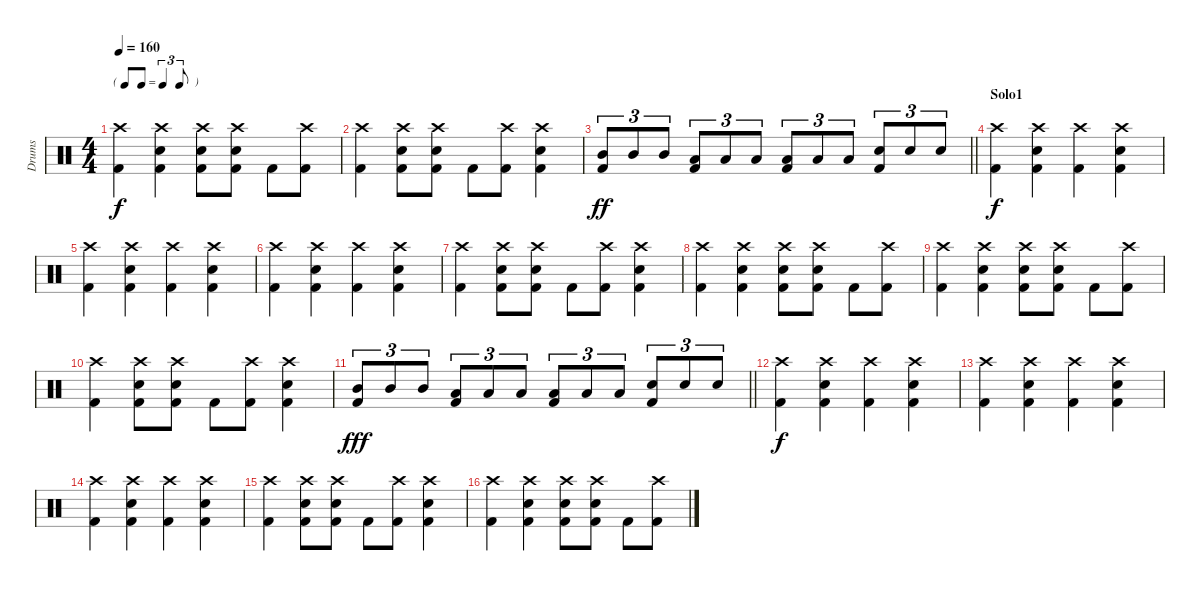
\track ("Drums" "Drums") {instrument percussion}
\staff {score}
\articulation defaults
\ts (4 4)
\tf triplet8th
\tempo 160
\clef neutral
\ks c
("Crash high (hit)" "Kick (hit) 2").4{dy f} ("Crash high (hit)" "Snare (hit) 2" "Kick (hit) 2").4 ("Crash high (hit)" "Snare (hit) 2" "Kick (hit) 2").8 ("Crash high (hit)" "Snare (hit) 2" "Kick (hit) 2").8 "Kick (hit) 2".8 ("Crash high (hit)" "Kick (hit) 2").8 |
("Crash high (hit)" "Kick (hit) 2").4 ("Crash high (hit)" "Snare (hit) 2" "Kick (hit) 2").8 ("Crash high (hit)" "Snare (hit) 2" "Kick (hit) 2").8 "Kick (hit) 2".8 ("Crash high (hit)" "Kick (hit) 2").8 ("Crash high (hit)" "Snare (hit) 2" "Kick (hit) 2").4 |
\barLineRight lightlight
("Mid Tom (hit)" "Kick (hit) 2").8{tu (3 2) dy ff} "Mid Tom (hit)".8{tu (3 2)} "Mid Tom (hit)".8{tu (3 2)} ("Low Tom (hit)" "Kick (hit) 2").8{tu (3 2)} "Low Tom (hit)".8{tu (3 2)} "Low Tom (hit)".8{tu (3 2)} ("Low Floor Tom (hit)" "Kick (hit) 2").8{tu (3 2)} "Low Floor Tom (hit)".8{tu (3 2)} "Low Floor Tom (hit)".8{tu (3 2)} ("Snare (hit) 2" "Kick (hit) 2").8{tu (3 2)} "Snare (hit) 2".8{tu (3 2)} "Snare (hit) 2".8{tu (3 2)} |
\section ("" "Solo1")
("Crash high (hit)" "Kick (hit) 2").4{dy f} ("Crash high (hit)" "Snare (hit) 2" "Kick (hit) 2").4 ("Crash high (hit)" "Kick (hit) 2").4 ("Crash high (hit)" "Snare (hit) 2" "Kick (hit) 2").4 |
("Crash high (hit)" "Kick (hit) 2").4 ("Crash high (hit)" "Snare (hit) 2" "Kick (hit) 2").4 ("Crash high (hit)" "Kick (hit) 2").4 ("Crash high (hit)" "Snare (hit) 2" "Kick (hit) 2").4 |
("Crash high (hit)" "Kick (hit) 2").4 ("Crash high (hit)" "Snare (hit) 2" "Kick (hit) 2").4 ("Crash high (hit)" "Kick (hit) 2").4 ("Crash high (hit)" "Snare (hit) 2" "Kick (hit) 2").4 |
("Crash high (hit)" "Kick (hit) 2").4 ("Crash high (hit)" "Snare (hit) 2" "Kick (hit) 2").8 ("Crash high (hit)" "Snare (hit) 2" "Kick (hit) 2").8 "Kick (hit) 2".8 ("Crash high (hit)" "Kick (hit) 2").8 ("Crash high (hit)" "Snare (hit) 2" "Kick (hit) 2").4 |
("Crash high (hit)" "Kick (hit) 2").4 ("Crash high (hit)" "Snare (hit) 2" "Kick (hit) 2").4 ("Crash high (hit)" "Snare (hit) 2" "Kick (hit) 2").8 ("Crash high (hit)" "Snare (hit) 2" "Kick (hit) 2").8 "Kick (hit) 2".8 ("Crash high (hit)" "Kick (hit) 2").8 |
("Crash high (hit)" "Kick (hit) 2").4 ("Crash high (hit)" "Snare (hit) 2" "Kick (hit) 2").4 ("Crash high (hit)" "Snare (hit) 2" "Kick (hit) 2").8 ("Crash high (hit)" "Snare (hit) 2" "Kick (hit) 2").8 "Kick (hit) 2".8 ("Crash high (hit)" "Kick (hit) 2").8 |
("Crash high (hit)" "Kick (hit) 2").4 ("Crash high (hit)" "Snare (hit) 2" "Kick (hit) 2").8 ("Crash high (hit)" "Snare (hit) 2" "Kick (hit) 2").8 "Kick (hit) 2".8 ("Crash high (hit)" "Kick (hit) 2").8 ("Crash high (hit)" "Snare (hit) 2" "Kick (hit) 2").4 |
\barLineRight lightlight
("Mid Tom (hit)" "Kick (hit) 2").8{tu (3 2) dy fff} "Mid Tom (hit)".8{tu (3 2)} "Mid Tom (hit)".8{tu (3 2)} ("Low Tom (hit)" "Kick (hit) 2").8{tu (3 2)} "Low Tom (hit)".8{tu (3 2)} "Low Tom (hit)".8{tu (3 2)} ("Low Floor Tom (hit)" "Kick (hit) 2").8{tu (3 2)} "Low Floor Tom (hit)".8{tu (3 2)} "Low Floor Tom (hit)".8{tu (3 2)} ("Snare (hit) 2" "Kick (hit) 2").8{tu (3 2)} "Snare (hit) 2".8{tu (3 2)} "Snare (hit) 2".8{tu (3 2)} |
("Crash high (hit)" "Kick (hit) 2").4{dy f} ("Crash high (hit)" "Snare (hit) 2" "Kick (hit) 2").4 ("Crash high (hit)" "Kick (hit) 2").4 ("Crash high (hit)" "Snare (hit) 2" "Kick (hit) 2").4 |
("Crash high (hit)" "Kick (hit) 2").4 ("Crash high (hit)" "Snare (hit) 2" "Kick (hit) 2").4 ("Crash high (hit)" "Kick (hit) 2").4 ("Crash high (hit)" "Snare (hit) 2" "Kick (hit) 2").4 |
("Crash high (hit)" "Kick (hit) 2").4 ("Crash high (hit)" "Snare (hit) 2" "Kick (hit) 2").4 ("Crash high (hit)" "Kick (hit) 2").4 ("Crash high (hit)" "Snare (hit) 2" "Kick (hit) 2").4 |
("Crash high (hit)" "Kick (hit) 2").4 ("Crash high (hit)" "Snare (hit) 2" "Kick (hit) 2").8 ("Crash high (hit)" "Snare (hit) 2" "Kick (hit) 2").8 "Kick (hit) 2".8 ("Crash high (hit)" "Kick (hit) 2").8 ("Crash high (hit)" "Snare (hit) 2" "Kick (hit) 2").4 |
("Crash high (hit)" "Kick (hit) 2").4 ("Crash high (hit)" "Snare (hit) 2" "Kick (hit) 2").4 ("Crash high (hit)" "Snare (hit) 2" "Kick (hit) 2").8 ("Crash high (hit)" "Snare (hit) 2" "Kick (hit) 2").8 "Kick (hit) 2".8 ("Crash high (hit)" "Kick (hit) 2").8
